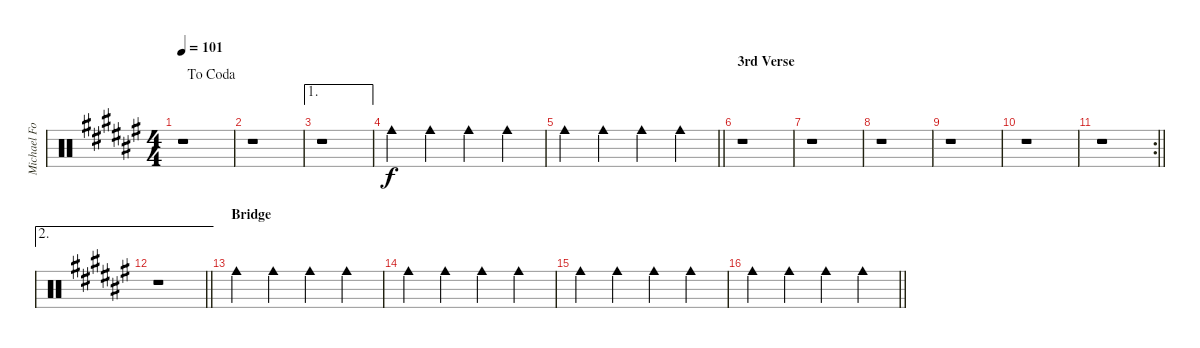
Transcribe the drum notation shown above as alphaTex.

\track ("Michael Foster" "Michael Fo") {instrument percussion}
\staff {score}
\articulation defaults
\ts (4 4)
\jump dacoda
\tempo 101
\clef neutral
\ks f#
r.1{dy f} |
r.1 |
\ae 1
r.1 |
"Cowbell medium (hit)".4 "Cowbell medium (hit)".4 "Cowbell medium (hit)".4 "Cowbell medium (hit)".4 |
\barLineRight lightlight "Cowbell medium (hit)".4 "Cowbell medium (hit)".4 "Cowbell medium (hit)".4 "Cowbell medium (hit)".4
|
\section ("" "3rd Verse")
r.1 |
r.1 |
r.1 |
r.1 |
r.1 |
\rc 2
\barLineRight lightlight
r.1 |
\ae 2
\barLineRight lightlight
r.1 |
\section ("" "Bridge")
"Cowbell medium (hit)".4 "Cowbell medium (hit)".4 "Cowbell medium (hit)".4 "Cowbell medium (hit)".4 |
"Cowbell medium (hit)".4 "Cowbell medium (hit)".4 "Cowbell medium (hit)".4 "Cowbell medium (hit)".4 |
"Cowbell medium (hit)".4 "Cowbell medium (hit)".4 "Cowbell medium (hit)".4 "Cowbell medium (hit)".4 |
\barLineRight lightlight "Cowbell medium (hit)".4 "Cowbell medium (hit)".4 "Cowbell medium (hit)".4 "Cowbell medium (hit)".4
